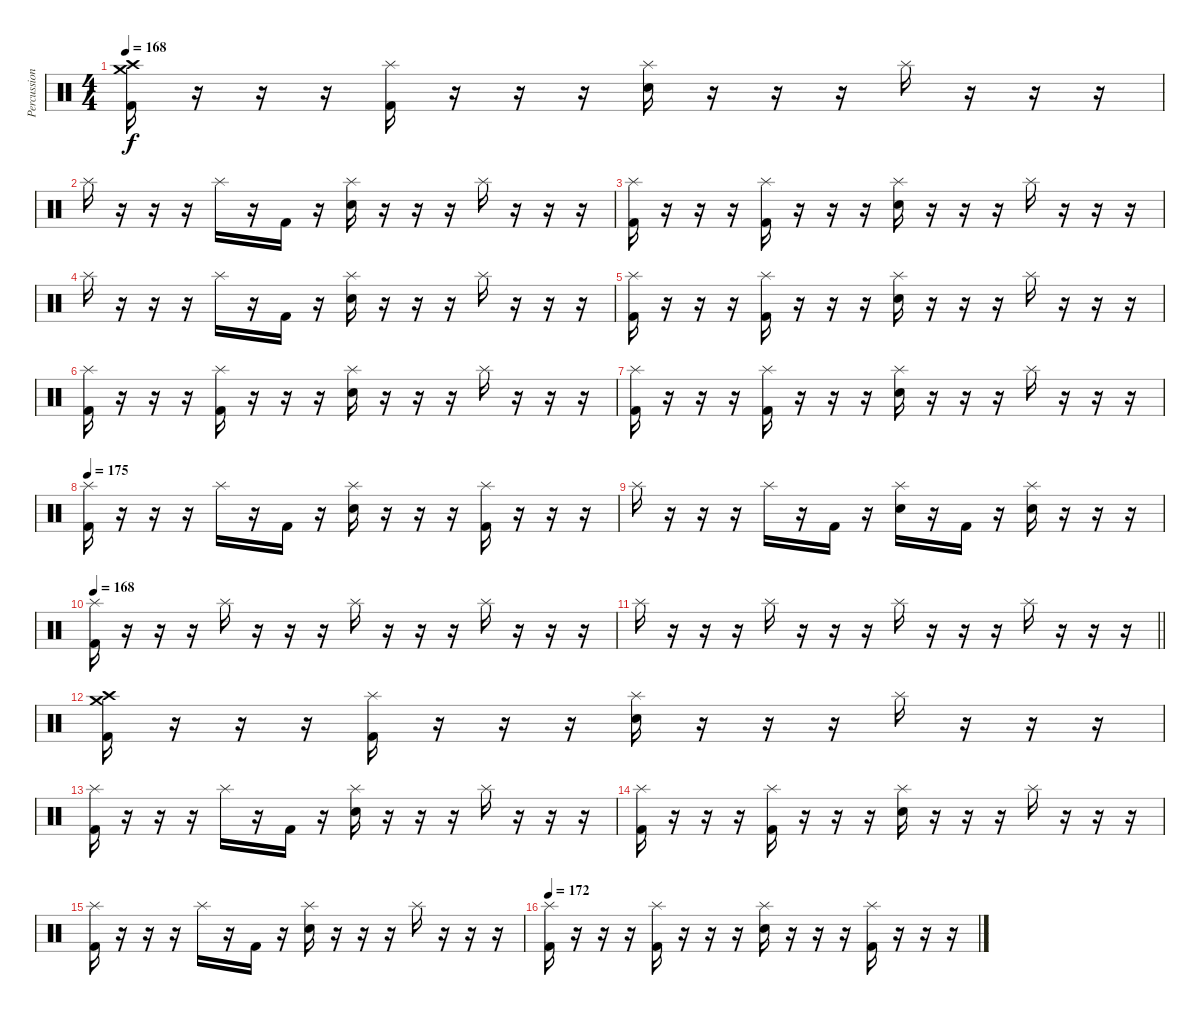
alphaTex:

\track ("Percussion" "Percussion") {instrument percussion}
\staff {score}
\articulation defaults
\ts (4 4)
\section ("" "")
\tempo 168
\clef neutral
\ks c
("Crash medium (hit)" "Crash high (hit)" "Kick (hit) 2").16{dy f} r.16 r.16 r.16 ("Splash (hit)" "Kick (hit) 2").16 r.16 r.16 r.16 ("Splash (hit)" "Electric Snare (hit)").16 r.16 r.16 r.16 "Splash (hit)".16 r.16 r.16 r.16 |
"Splash (hit)".16 r.16 r.16 r.16 "Splash (hit)".16 r.16 "Kick (hit) 2".16 r.16 ("Splash (hit)" "Electric Snare (hit)").16 r.16 r.16 r.16 "Splash (hit)".16 r.16 r.16 r.16 |
("Splash (hit)" "Kick (hit) 2").16 r.16 r.16 r.16 ("Splash (hit)" "Kick (hit) 2").16 r.16 r.16 r.16 ("Splash (hit)" "Electric Snare (hit)").16 r.16 r.16 r.16 "Splash (hit)".16 r.16 r.16 r.16 |
"Splash (hit)".16 r.16 r.16 r.16 "Splash (hit)".16 r.16 "Kick (hit) 2".16 r.16 ("Splash (hit)" "Electric Snare (hit)").16 r.16 r.16 r.16 "Splash (hit)".16 r.16 r.16 r.16 |
("Splash (hit)" "Kick (hit) 2").16 r.16 r.16 r.16 ("Splash (hit)" "Kick (hit) 2").16 r.16 r.16 r.16 ("Splash (hit)" "Electric Snare (hit)").16 r.16 r.16 r.16 "Splash (hit)".16 r.16 r.16 r.16 |
("Splash (hit)" "Kick (hit) 2").16 r.16 r.16 r.16 ("Splash (hit)" "Kick (hit) 2").16 r.16 r.16 r.16 ("Splash (hit)" "Electric Snare (hit)").16 r.16 r.16 r.16 "Splash (hit)".16 r.16 r.16 r.16 |
("Splash (hit)" "Kick (hit) 2").16 r.16 r.16 r.16 ("Splash (hit)" "Kick (hit) 2").16 r.16 r.16 r.16 ("Splash (hit)" "Electric Snare (hit)").16 r.16 r.16 r.16 "Splash (hit)".16 r.16 r.16 r.16 |
\tempo 175
("Splash (hit)" "Kick (hit) 2").16 r.16 r.16 r.16 "Splash (hit)".16 r.16 "Kick (hit) 2".16 r.16 ("Splash (hit)" "Electric Snare (hit)").16 r.16 r.16 r.16 ("Splash (hit)" "Kick (hit) 2").16 r.16 r.16 r.16 |
"Splash (hit)".16 r.16 r.16 r.16 "Splash (hit)".16 r.16 "Kick (hit) 2".16 r.16 ("Splash (hit)" "Electric Snare (hit)").16 r.16 "Kick (hit) 2".16 r.16 ("Splash (hit)" "Electric Snare (hit)").16 r.16 r.16 r.16 |
\tempo 168
("Splash (hit)" "Kick (hit) 2").16 r.16 r.16 r.16 "Splash (hit)".16 r.16 r.16 r.16 "Splash (hit)".16 r.16 r.16 r.16 "Splash (hit)".16 r.16 r.16 r.16 |
\barLineRight lightlight "Splash (hit)".16
r.16 r.16 r.16 "Splash (hit)".16 r.16 r.16 r.16 "Splash (hit)".16 r.16 r.16 r.16 "Splash (hit)".16 r.16 r.16 r.16 |
("Crash medium (hit)" "Crash high (hit)" "Kick (hit) 2").16 r.16 r.16 r.16 ("Splash (hit)" "Kick (hit) 2").16 r.16 r.16 r.16 ("Splash (hit)" "Electric Snare (hit)").16 r.16 r.16 r.16 "Splash (hit)".16 r.16 r.16 r.16 |
("Splash (hit)" "Kick (hit) 2").16 r.16 r.16 r.16 "Splash (hit)".16 r.16 "Kick (hit) 2".16 r.16 ("Splash (hit)" "Electric Snare (hit)").16 r.16 r.16 r.16 "Splash (hit)".16 r.16 r.16 r.16 |
("Splash (hit)" "Kick (hit) 2").16 r.16 r.16 r.16 ("Splash (hit)" "Kick (hit) 2").16 r.16 r.16 r.16 ("Splash (hit)" "Electric Snare (hit)").16 r.16 r.16 r.16 "Splash (hit)".16 r.16 r.16 r.16 |
("Splash (hit)" "Kick (hit) 2").16 r.16 r.16 r.16 "Splash (hit)".16 r.16 "Kick (hit) 2".16 r.16 ("Splash (hit)" "Electric Snare (hit)").16 r.16 r.16 r.16 "Splash (hit)".16 r.16 r.16 r.16 |
\tempo 172
("Splash (hit)" "Kick (hit) 2").16 r.16 r.16 r.16 ("Splash (hit)" "Kick (hit) 2").16 r.16 r.16 r.16 ("Splash (hit)" "Electric Snare (hit)").16 r.16 r.16 r.16 ("Splash (hit)" "Kick (hit) 2").16 r.16 r.16 r.16
